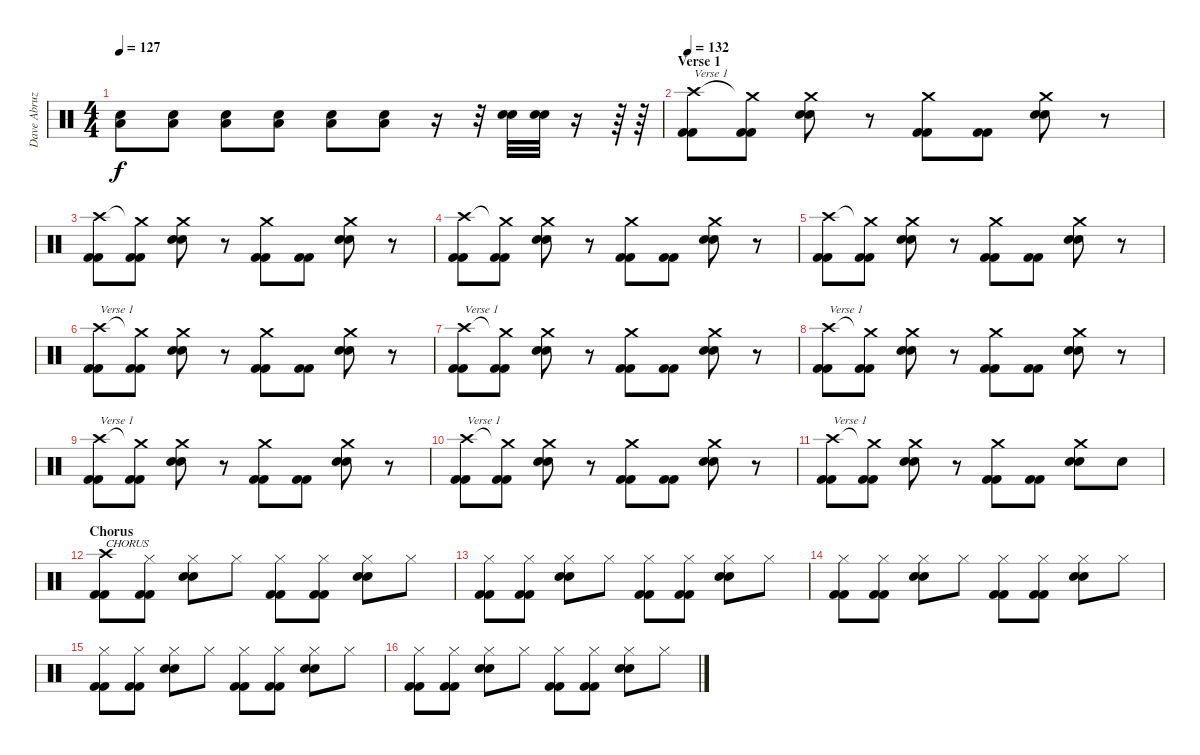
\track ("Dave Abruzzesse" "Dave Abruz") {instrument percussion}
\staff {score}
\articulation defaults
\ts (4 4)
\tempo 127
\clef neutral
\ks c
("Electric Snare (hit)" "Low Tom (hit)").8{dy f} ("Electric Snare (hit)" "Low Tom (hit)").8 ("Electric Snare (hit)" "Low Tom (hit)").8 ("Electric Snare (hit)" "Low Tom (hit)").8 ("Electric Snare (hit)" "Low Tom (hit)").8 ("Electric Snare (hit)" "Low Tom (hit)").8 r.16 r.32 ("Electric Snare (hit)" "Electric Snare (hit)").32 ("Electric Snare (hit)" "Electric Snare (hit)").32 r.16 r.64 r.64 |
\section ("" "Verse 1")
\tempo 132
("Crash high (hit)" "Kick (hit) 2" "Kick (hit) 2").8{txt "Verse 1"} ("Crash medium (hit)"{t} "Kick (hit) 2" "Kick (hit) 2").8 ("Crash medium (hit)" "Snare (hit) 2" "Snare (hit) 2").8 r.8 ("Crash medium (hit)" "Kick (hit) 2" "Kick (hit) 2").8 ("Kick (hit) 2" "Kick (hit) 2").8 ("Crash medium (hit)" "Snare (hit) 2" "Snare (hit) 2").8 r.8 |
("Crash high (hit)" "Kick (hit) 2" "Kick (hit) 2").8 ("Crash medium (hit)"{t} "Kick (hit) 2" "Kick (hit) 2").8 ("Crash medium (hit)" "Snare (hit) 2" "Snare (hit) 2").8 r.8 ("Crash medium (hit)" "Kick (hit) 2" "Kick (hit) 2").8 ("Kick (hit) 2" "Kick (hit) 2").8 ("Crash medium (hit)" "Snare (hit) 2" "Snare (hit) 2").8 r.8 |
("Crash high (hit)" "Kick (hit) 2" "Kick (hit) 2").8 ("Crash medium (hit)"{t} "Kick (hit) 2" "Kick (hit) 2").8 ("Crash medium (hit)" "Snare (hit) 2" "Snare (hit) 2").8 r.8 ("Crash medium (hit)" "Kick (hit) 2" "Kick (hit) 2").8 ("Kick (hit) 2" "Kick (hit) 2").8 ("Crash medium (hit)" "Snare (hit) 2" "Snare (hit) 2").8 r.8 |
("Crash high (hit)" "Kick (hit) 2" "Kick (hit) 2").8 ("Crash medium (hit)"{t} "Kick (hit) 2" "Kick (hit) 2").8 ("Crash medium (hit)" "Snare (hit) 2" "Snare (hit) 2").8 r.8 ("Crash medium (hit)" "Kick (hit) 2" "Kick (hit) 2").8 ("Kick (hit) 2" "Kick (hit) 2").8 ("Crash medium (hit)" "Snare (hit) 2" "Snare (hit) 2").8 r.8 |
("Crash high (hit)" "Kick (hit) 2" "Kick (hit) 2").8{txt "Verse 1"} ("Crash medium (hit)"{t} "Kick (hit) 2" "Kick (hit) 2").8 ("Crash medium (hit)" "Snare (hit) 2" "Snare (hit) 2").8 r.8 ("Crash medium (hit)" "Kick (hit) 2" "Kick (hit) 2").8 ("Kick (hit) 2" "Kick (hit) 2").8 ("Crash medium (hit)" "Snare (hit) 2" "Snare (hit) 2").8 r.8 |
("Crash high (hit)" "Kick (hit) 2" "Kick (hit) 2").8{txt "Verse 1"} ("Crash medium (hit)"{t} "Kick (hit) 2" "Kick (hit) 2").8 ("Crash medium (hit)" "Snare (hit) 2" "Snare (hit) 2").8 r.8 ("Crash medium (hit)" "Kick (hit) 2" "Kick (hit) 2").8 ("Kick (hit) 2" "Kick (hit) 2").8 ("Crash medium (hit)" "Snare (hit) 2" "Snare (hit) 2").8 r.8 |
("Crash high (hit)" "Kick (hit) 2" "Kick (hit) 2").8{txt "Verse 1"} ("Crash medium (hit)"{t} "Kick (hit) 2" "Kick (hit) 2").8 ("Crash medium (hit)" "Snare (hit) 2" "Snare (hit) 2").8 r.8 ("Crash medium (hit)" "Kick (hit) 2" "Kick (hit) 2").8 ("Kick (hit) 2" "Kick (hit) 2").8 ("Crash medium (hit)" "Snare (hit) 2" "Snare (hit) 2").8 r.8 |
("Crash high (hit)" "Kick (hit) 2" "Kick (hit) 2").8{txt "Verse 1"} ("Crash medium (hit)"{t} "Kick (hit) 2" "Kick (hit) 2").8 ("Crash medium (hit)" "Snare (hit) 2" "Snare (hit) 2").8 r.8 ("Crash medium (hit)" "Kick (hit) 2" "Kick (hit) 2").8 ("Kick (hit) 2" "Kick (hit) 2").8 ("Crash medium (hit)" "Snare (hit) 2" "Snare (hit) 2").8 r.8 |
("Crash high (hit)" "Kick (hit) 2" "Kick (hit) 2").8{txt "Verse 1"} ("Crash medium (hit)"{t} "Kick (hit) 2" "Kick (hit) 2").8 ("Crash medium (hit)" "Snare (hit) 2" "Snare (hit) 2").8 r.8 ("Crash medium (hit)" "Kick (hit) 2" "Kick (hit) 2").8 ("Kick (hit) 2" "Kick (hit) 2").8 ("Crash medium (hit)" "Snare (hit) 2" "Snare (hit) 2").8 r.8 |
("Crash high (hit)" "Kick (hit) 2" "Kick (hit) 2").8{txt "Verse 1"} ("Crash medium (hit)"{t} "Kick (hit) 2" "Kick (hit) 2").8 ("Crash medium (hit)" "Snare (hit) 2" "Snare (hit) 2").8 r.8 ("Crash medium (hit)" "Kick (hit) 2" "Kick (hit) 2").8 ("Kick (hit) 2" "Kick (hit) 2").8 ("Crash medium (hit)" "Snare (hit) 2" "Snare (hit) 2").8 "Snare (hit) 2".8 |
\section ("" "Chorus")
("Crash high (hit)" "Kick (hit) 2" "Kick (hit) 2").8{txt "CHORUS"} ("Hi-Hat (closed)" "Kick (hit) 2" "Kick (hit) 2").8 ("Hi-Hat (closed)" "Snare (hit) 2" "Snare (hit) 2").8 "Hi-Hat (closed)".8 ("Hi-Hat (closed)" "Kick (hit) 2" "Kick (hit) 2").8 ("Hi-Hat (closed)" "Kick (hit) 2" "Kick (hit) 2").8 ("Hi-Hat (closed)" "Snare (hit) 2" "Snare (hit) 2").8 "Hi-Hat (closed)".8 |
("Hi-Hat (closed)" "Kick (hit) 2" "Kick (hit) 2").8 ("Hi-Hat (closed)" "Kick (hit) 2" "Kick (hit) 2").8 ("Hi-Hat (closed)" "Snare (hit) 2" "Snare (hit) 2").8 "Hi-Hat (closed)".8 ("Hi-Hat (closed)" "Kick (hit) 2" "Kick (hit) 2").8 ("Hi-Hat (closed)" "Kick (hit) 2" "Kick (hit) 2").8 ("Hi-Hat (closed)" "Snare (hit) 2" "Snare (hit) 2").8 "Hi-Hat (closed)".8 |
("Hi-Hat (closed)" "Kick (hit) 2" "Kick (hit) 2").8 ("Hi-Hat (closed)" "Kick (hit) 2" "Kick (hit) 2").8 ("Hi-Hat (closed)" "Snare (hit) 2" "Snare (hit) 2").8 "Hi-Hat (closed)".8 ("Hi-Hat (closed)" "Kick (hit) 2" "Kick (hit) 2").8 ("Hi-Hat (closed)" "Kick (hit) 2" "Kick (hit) 2").8 ("Hi-Hat (closed)" "Snare (hit) 2" "Snare (hit) 2").8 "Hi-Hat (closed)".8 |
("Hi-Hat (closed)" "Kick (hit) 2" "Kick (hit) 2").8 ("Hi-Hat (closed)" "Kick (hit) 2" "Kick (hit) 2").8 ("Hi-Hat (closed)" "Snare (hit) 2" "Snare (hit) 2").8 "Hi-Hat (closed)".8 ("Hi-Hat (closed)" "Kick (hit) 2" "Kick (hit) 2").8 ("Hi-Hat (closed)" "Kick (hit) 2" "Kick (hit) 2").8 ("Hi-Hat (closed)" "Snare (hit) 2" "Snare (hit) 2").8 "Hi-Hat (closed)".8 |
("Hi-Hat (closed)" "Kick (hit) 2" "Kick (hit) 2").8 ("Hi-Hat (closed)" "Kick (hit) 2" "Kick (hit) 2").8 ("Hi-Hat (closed)" "Snare (hit) 2" "Snare (hit) 2").8 "Hi-Hat (closed)".8 ("Hi-Hat (closed)" "Kick (hit) 2" "Kick (hit) 2").8 ("Hi-Hat (closed)" "Kick (hit) 2" "Kick (hit) 2").8 ("Hi-Hat (closed)" "Snare (hit) 2" "Snare (hit) 2").8 "Hi-Hat (closed)".8
